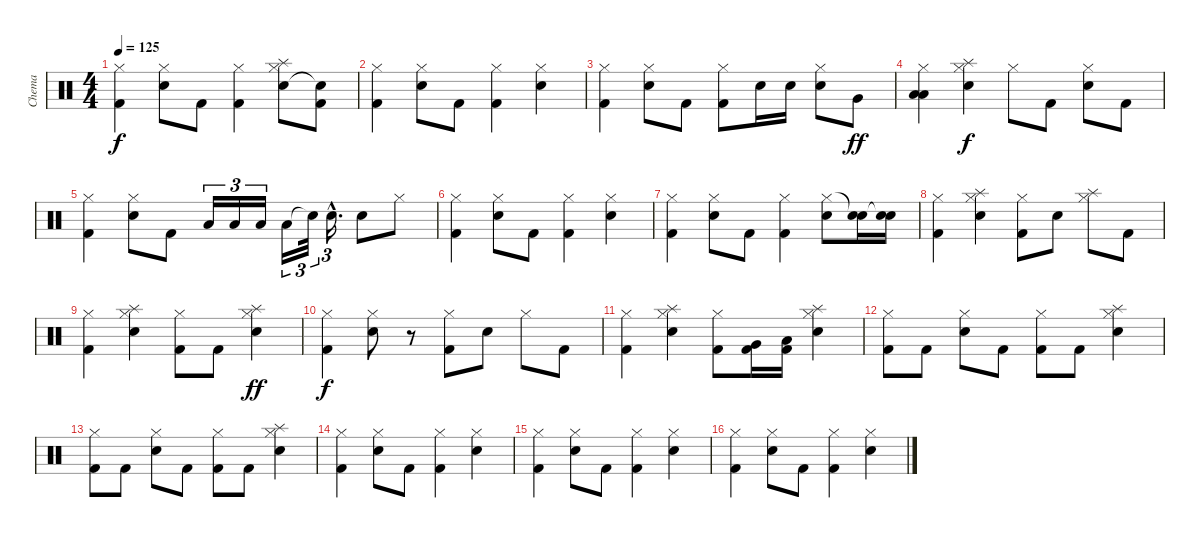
\track ("Chema" "Chema") {instrument percussion}
\staff {score}
\articulation defaults
\ts (4 4)
\tempo 125
\clef neutral
\ks c
("Hi-Hat (closed)" "Kick (hit) 2").4{dy f} ("Hi-Hat (closed)" "Snare (hit) 2").8 "Kick (hit) 2".8 ("Hi-Hat (closed)" "Kick (hit) 2").4 ("Hi-Hat (closed)" "Snare (hit) 2" "Splash (hit)").8 ("Kick (hit) 2" "Snare (hit)"{t}).8 |
("Hi-Hat (closed)" "Kick (hit) 2").4 ("Hi-Hat (closed)" "Snare (hit) 2").8 "Kick (hit) 2".8 ("Hi-Hat (closed)" "Kick (hit) 2").4 ("Hi-Hat (closed)" "Snare (hit) 2").4 |
("Hi-Hat (closed)" "Kick (hit) 2").4 ("Hi-Hat (closed)" "Snare (hit) 2").8 "Kick (hit) 2".8 ("Hi-Hat (closed)" "Kick (hit) 2").8 "Snare (hit) 2".16 "Snare (hit) 2".16 ("Hi-Hat (closed)" "Snare (hit) 2").8 "Very Low Tom (hit)".8{dy ff} |
("Hi-Hat (closed)" "Low Floor Tom (hit)" "Low Tom (hit)").4 ("Hi-Hat (closed)" "Snare (hit) 2" "Splash (hit)").4{dy f} "Hi-Hat (closed)".8 "Kick (hit) 2".8 ("Hi-Hat (closed)" "Snare (hit) 2").8 "Kick (hit) 2".8 |
("Hi-Hat (closed)" "Kick (hit) 2").4 ("Hi-Hat (closed)" "Snare (hit) 2").8 "Kick (hit) 2".8 "Low Floor Tom (hit)".16{tu (3 2) bd 480} "Low Tom (hit)".16{tu (3 2) bu 480} "Low Tom (hit)".16{tu (3 2)} "Low Tom (hit)".16{tu (3 2)} "Snare (hit) 2"{t}.32{tu (3 2)} "Snare (hit) 2"{hac}.16{d tu (3 2)} "Snare (hit) 2".8 "Hi-Hat (closed)".8 |
("Hi-Hat (closed)" "Kick (hit) 2").4 ("Hi-Hat (closed)" "Snare (hit) 2").8 "Kick (hit) 2".8 ("Hi-Hat (closed)" "Kick (hit) 2").4 ("Hi-Hat (closed)" "Snare (hit) 2").4 |
("Hi-Hat (closed)" "Kick (hit) 2").4 ("Hi-Hat (closed)" "Snare (hit) 2").8 "Kick (hit) 2".8 ("Hi-Hat (closed)" "Kick (hit) 2").4 ("Hi-Hat (closed)" "Snare (hit) 2").8 ("Snare (hit)"{t} "Snare (hit) 2").16 ("Snare (hit)"{t} "Snare (hit) 2").16 |
("Hi-Hat (closed)" "Kick (hit) 2").4 ("Hi-Hat (closed)" "Snare (hit) 2" "Splash (hit)").4 ("Hi-Hat (closed)" "Kick (hit) 2").8 "Snare (hit) 2".8 ("Hi-Hat (closed)" "Splash (hit)").8 "Kick (hit) 2".8 |
("Hi-Hat (closed)" "Kick (hit) 2").4 ("Hi-Hat (closed)" "Snare (hit) 2" "Splash (hit)").4 ("Hi-Hat (closed)" "Kick (hit) 2").8 "Kick (hit) 2".8 ("Hi-Hat (closed)" "Snare (hit) 2" "Splash (hit)").4{dy ff} |
("Hi-Hat (closed)" "Kick (hit) 2").4{dy f} ("Hi-Hat (closed)" "Snare (hit) 2").8 r.8 ("Hi-Hat (closed)" "Kick (hit) 2").8 "Snare (hit) 2".8 "Hi-Hat (closed)".8 "Kick (hit) 2".8 |
("Hi-Hat (closed)" "Kick (hit) 2").4 ("Hi-Hat (closed)" "Snare (hit) 2" "Splash (hit)").4 ("Hi-Hat (closed)" "Kick (hit) 2").8 ("Kick (hit) 2" "Very Low Tom (hit)").16 ("Kick (hit) 2" "Low Tom (hit)").16 ("Hi-Hat (closed)" "Snare (hit) 2" "Splash (hit)").4 |
("Hi-Hat (closed)" "Kick (hit) 2").8 "Kick (hit) 2".8 ("Hi-Hat (closed)" "Snare (hit) 2").8 "Kick (hit) 2".8 ("Hi-Hat (closed)" "Kick (hit) 2").8 "Kick (hit) 2".8 ("Hi-Hat (closed)" "Snare (hit) 2" "Splash (hit)").4 |
("Hi-Hat (closed)" "Kick (hit) 2").8 "Kick (hit) 2".8 ("Hi-Hat (closed)" "Snare (hit) 2").8 "Kick (hit) 2".8 ("Hi-Hat (closed)" "Kick (hit) 2").8 "Kick (hit) 2".8 ("Hi-Hat (closed)" "Snare (hit) 2" "Splash (hit)").4 |
("Hi-Hat (closed)" "Kick (hit) 2").4 ("Hi-Hat (closed)" "Snare (hit) 2").8 "Kick (hit) 2".8 ("Hi-Hat (closed)" "Kick (hit) 2").4 ("Hi-Hat (closed)" "Snare (hit) 2").4 |
("Hi-Hat (closed)" "Kick (hit) 2").4 ("Hi-Hat (closed)" "Snare (hit) 2").8 "Kick (hit) 2".8 ("Hi-Hat (closed)" "Kick (hit) 2").4 ("Hi-Hat (closed)" "Snare (hit) 2").4 |
("Hi-Hat (closed)" "Kick (hit) 2").4 ("Hi-Hat (closed)" "Snare (hit) 2").8 "Kick (hit) 2".8 ("Hi-Hat (closed)" "Kick (hit) 2").4 ("Hi-Hat (closed)" "Snare (hit) 2").4
